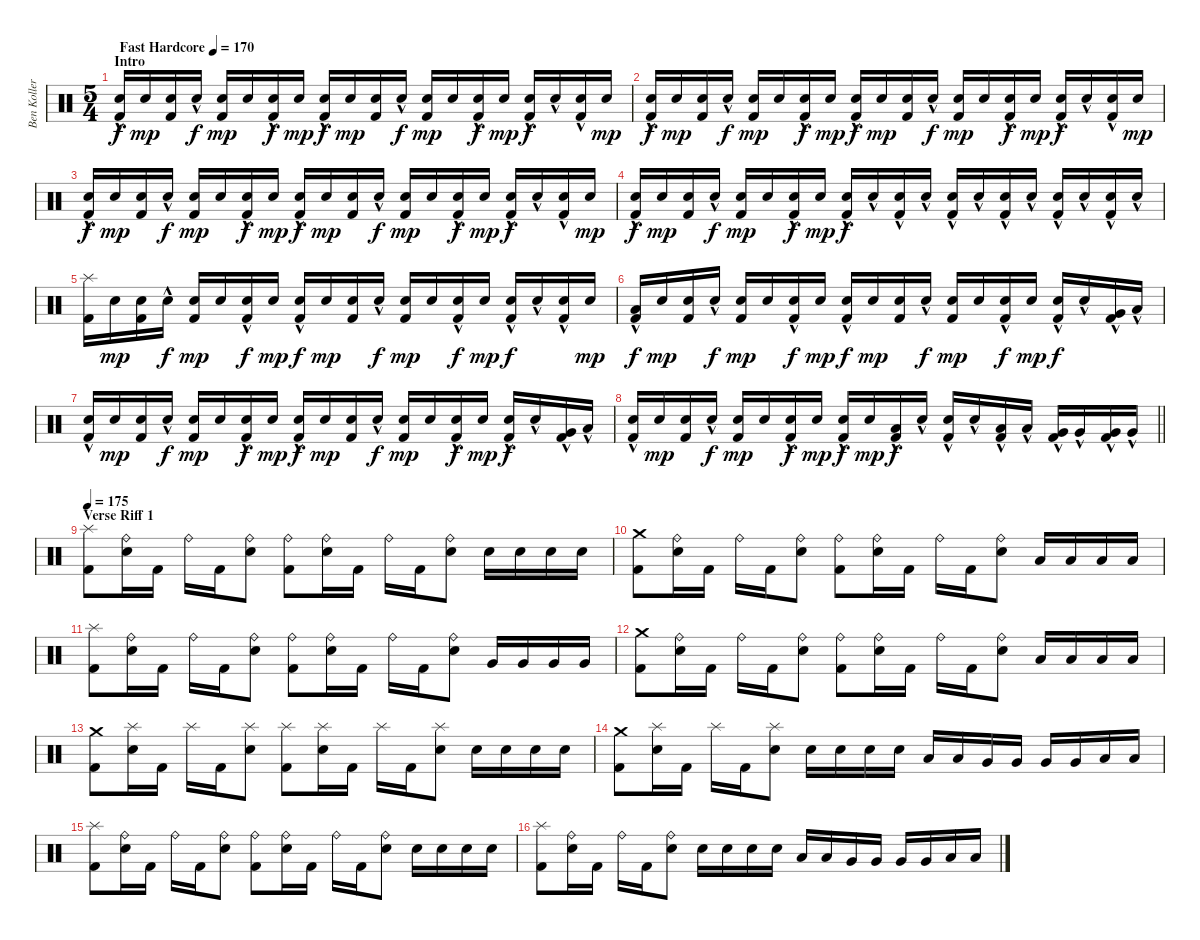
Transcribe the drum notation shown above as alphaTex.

\track ("Ben Koller" "Ben Koller") {instrument percussion}
\staff {score}
\articulation defaults
\ts (5 4)
\section ("" "Intro")
\tempo (170 "Fast Hardcore")
\clef neutral
\ks c
("Electric Snare (hit)"{hac} "Kick (hit) 2").16{dy f} "Electric Snare (hit)".16{dy mp} ("Electric Snare (hit)" "Kick (hit) 2").16 "Electric Snare (hit)"{hac}.16{dy f} ("Electric Snare (hit)" "Kick (hit) 2").16{dy mp} "Electric Snare (hit)".16 ("Electric Snare (hit)"{hac} "Kick (hit) 2").16{dy f} "Electric Snare (hit)".16{dy mp} ("Electric Snare (hit)"{hac} "Kick (hit) 2").16{dy f} "Electric Snare (hit)".16{dy mp} ("Electric Snare (hit)" "Kick (hit) 2").16 "Electric Snare (hit)"{hac}.16{dy f} ("Electric Snare (hit)" "Kick (hit) 2").16{dy mp} "Electric Snare (hit)".16 ("Electric Snare (hit)"{hac} "Kick (hit) 2").16{dy f} "Electric Snare (hit)".16{dy mp} ("Electric Snare (hit)"{hac} "Kick (hit) 2").16{dy f} "Electric Snare (hit)"{hac}.16 ("Electric Snare (hit)"{hac} "Kick (hit) 2").16 "Electric Snare (hit)".16{dy mp} |
("Electric Snare (hit)"{hac} "Kick (hit) 2").16{dy f} "Electric Snare (hit)".16{dy mp} ("Electric Snare (hit)" "Kick (hit) 2").16 "Electric Snare (hit)"{hac}.16{dy f} ("Electric Snare (hit)" "Kick (hit) 2").16{dy mp} "Electric Snare (hit)".16 ("Electric Snare (hit)"{hac} "Kick (hit) 2").16{dy f} "Electric Snare (hit)".16{dy mp} ("Electric Snare (hit)"{hac} "Kick (hit) 2").16{dy f} "Electric Snare (hit)".16{dy mp} ("Electric Snare (hit)" "Kick (hit) 2").16 "Electric Snare (hit)"{hac}.16{dy f} ("Electric Snare (hit)" "Kick (hit) 2").16{dy mp} "Electric Snare (hit)".16 ("Electric Snare (hit)"{hac} "Kick (hit) 2").16{dy f} "Electric Snare (hit)".16{dy mp} ("Electric Snare (hit)"{hac} "Kick (hit) 2").16{dy f} "Electric Snare (hit)"{hac}.16 ("Electric Snare (hit)"{hac} "Kick (hit) 2").16 "Electric Snare (hit)".16{dy mp} |
("Electric Snare (hit)"{hac} "Kick (hit) 2").16{dy f} "Electric Snare (hit)".16{dy mp} ("Electric Snare (hit)" "Kick (hit) 2").16 "Electric Snare (hit)"{hac}.16{dy f} ("Electric Snare (hit)" "Kick (hit) 2").16{dy mp} "Electric Snare (hit)".16 ("Electric Snare (hit)"{hac} "Kick (hit) 2").16{dy f} "Electric Snare (hit)".16{dy mp} ("Electric Snare (hit)"{hac} "Kick (hit) 2").16{dy f} "Electric Snare (hit)".16{dy mp} ("Electric Snare (hit)" "Kick (hit) 2").16 "Electric Snare (hit)"{hac}.16{dy f} ("Electric Snare (hit)" "Kick (hit) 2").16{dy mp} "Electric Snare (hit)".16 ("Electric Snare (hit)"{hac} "Kick (hit) 2").16{dy f} "Electric Snare (hit)".16{dy mp} ("Electric Snare (hit)"{hac} "Kick (hit) 2").16{dy f} "Electric Snare (hit)"{hac}.16 ("Electric Snare (hit)"{hac} "Kick (hit) 2").16 "Electric Snare (hit)".16{dy mp} |
("Electric Snare (hit)"{hac} "Kick (hit) 2").16{dy f} "Electric Snare (hit)".16{dy mp} ("Electric Snare (hit)" "Kick (hit) 2").16 "Electric Snare (hit)"{hac}.16{dy f} ("Electric Snare (hit)" "Kick (hit) 2").16{dy mp} "Electric Snare (hit)".16 ("Electric Snare (hit)"{hac} "Kick (hit) 2").16{dy f} "Electric Snare (hit)".16{dy mp} ("Electric Snare (hit)"{hac} "Kick (hit) 2").16{dy f} "Electric Snare (hit)"{hac}.16 ("Electric Snare (hit)"{hac} "Kick (hit) 2").16 "Electric Snare (hit)"{hac}.16 ("Electric Snare (hit)"{hac} "Kick (hit) 2").16 "Electric Snare (hit)"{hac}.16 ("Electric Snare (hit)"{hac} "Kick (hit) 2").16 "Electric Snare (hit)"{hac}.16 ("Electric Snare (hit)"{hac} "Kick (hit) 2").16 "Electric Snare (hit)"{hac}.16 ("Electric Snare (hit)"{hac} "Kick (hit) 2").16 "Electric Snare (hit)"{hac}.16 |
("Splash (hit)" "Kick (hit) 2").16 "Electric Snare (hit)".16{dy mp} ("Electric Snare (hit)" "Kick (hit) 2").16 "Electric Snare (hit)"{hac}.16{dy f} ("Electric Snare (hit)" "Kick (hit) 2").16{dy mp} "Electric Snare (hit)".16 ("Electric Snare (hit)"{hac} "Kick (hit) 2").16{dy f} "Electric Snare (hit)".16{dy mp} ("Electric Snare (hit)"{hac} "Kick (hit) 2").16{dy f} "Electric Snare (hit)".16{dy mp} ("Electric Snare (hit)" "Kick (hit) 2").16 "Electric Snare (hit)"{hac}.16{dy f} ("Electric Snare (hit)" "Kick (hit) 2").16{dy mp} "Electric Snare (hit)".16 ("Electric Snare (hit)"{hac} "Kick (hit) 2").16{dy f} "Electric Snare (hit)".16{dy mp} ("Electric Snare (hit)"{hac} "Kick (hit) 2").16{dy f} "Electric Snare (hit)"{hac}.16 ("Electric Snare (hit)"{hac} "Kick (hit) 2").16 "Electric Snare (hit)".16{dy mp} |
("Low Floor Tom (hit)"{hac} "Kick (hit) 2").16{dy f} "Electric Snare (hit)".16{dy mp} ("Electric Snare (hit)" "Kick (hit) 2").16 "Electric Snare (hit)"{hac}.16{dy f} ("Electric Snare (hit)" "Kick (hit) 2").16{dy mp} "Electric Snare (hit)".16 ("Electric Snare (hit)"{hac} "Kick (hit) 2").16{dy f} "Electric Snare (hit)".16{dy mp} ("Electric Snare (hit)"{hac} "Kick (hit) 2").16{dy f} "Electric Snare (hit)".16{dy mp} ("Electric Snare (hit)" "Kick (hit) 2").16 "Electric Snare (hit)"{hac}.16{dy f} ("Electric Snare (hit)" "Kick (hit) 2").16{dy mp} "Electric Snare (hit)".16 ("Electric Snare (hit)"{hac} "Kick (hit) 2").16{dy f} "Electric Snare (hit)".16{dy mp} ("Electric Snare (hit)"{hac} "Kick (hit) 2").16{dy f} "Electric Snare (hit)"{hac}.16 ("Very Low Tom (hit)"{hac} "Kick (hit) 2").16 "Low Floor Tom (hit)"{hac}.16 |
("Electric Snare (hit)"{hac} "Kick (hit) 2").16 "Electric Snare (hit)".16{dy mp} ("Electric Snare (hit)" "Kick (hit) 2").16 "Electric Snare (hit)"{hac}.16{dy f} ("Electric Snare (hit)" "Kick (hit) 2").16{dy mp} "Electric Snare (hit)".16 ("Electric Snare (hit)"{hac} "Kick (hit) 2").16{dy f} "Electric Snare (hit)".16{dy mp} ("Electric Snare (hit)"{hac} "Kick (hit) 2").16{dy f} "Electric Snare (hit)".16{dy mp} ("Electric Snare (hit)" "Kick (hit) 2").16 "Electric Snare (hit)"{hac}.16{dy f} ("Electric Snare (hit)" "Kick (hit) 2").16{dy mp} "Electric Snare (hit)".16 ("Electric Snare (hit)"{hac} "Kick (hit) 2").16{dy f} "Electric Snare (hit)".16{dy mp} ("Electric Snare (hit)"{hac} "Kick (hit) 2").16{dy f} "Electric Snare (hit)"{hac}.16 ("Very Low Tom (hit)"{hac} "Kick (hit) 2").16 "Low Floor Tom (hit)"{hac}.16 |
\barLineRight lightlight
("Electric Snare (hit)"{hac} "Kick (hit) 2").16 "Electric Snare (hit)".16{dy mp} ("Electric Snare (hit)" "Kick (hit) 2").16 "Electric Snare (hit)"{hac}.16{dy f} ("Electric Snare (hit)" "Kick (hit) 2").16{dy mp} "Electric Snare (hit)".16 ("Electric Snare (hit)"{hac} "Kick (hit) 2").16{dy f} "Electric Snare (hit)".16{dy mp} ("Electric Snare (hit)"{hac} "Kick (hit) 2").16{dy f} "Electric Snare (hit)".16{dy mp} ("Low Tom (hit)"{hac} "Kick (hit) 2").16{dy f} "Electric Snare (hit)"{hac}.16 ("Electric Snare (hit)"{hac} "Kick (hit) 2").16 "Electric Snare (hit)"{hac}.16 ("Low Tom (hit)"{hac} "Kick (hit) 2").16 "Low Tom (hit)"{hac}.16 ("Very Low Tom (hit)"{hac} "Kick (hit) 2").16 "Very Low Tom (hit)"{hac}.16 ("Very Low Tom (hit)"{hac} "Kick (hit) 2").16 "Very Low Tom (hit)"{hac}.16 |
\section ("" "Verse Riff 1")
\tempo 175
("Splash (hit)" "Kick (hit) 2").8 ("Ride (bell)" "Electric Snare (hit)").16 "Kick (hit) 2".16 "Ride (bell)".16 "Kick (hit) 2".16 ("Ride (bell)" "Electric Snare (hit)").8 ("Ride (bell)" "Kick (hit) 2").8 ("Ride (bell)" "Electric Snare (hit)").16 "Kick (hit) 2".16 "Ride (bell)".16 "Kick (hit) 2".16 ("Ride (bell)" "Electric Snare (hit)").8 "Electric Snare (hit)".16 "Electric Snare (hit)".16 "Electric Snare (hit)".16 "Electric Snare (hit)".16 |
("Crash medium (hit)" "Kick (hit) 2").8 ("Ride (bell)" "Electric Snare (hit)").16 "Kick (hit) 2".16 "Ride (bell)".16 "Kick (hit) 2".16 ("Ride (bell)" "Electric Snare (hit)").8 ("Ride (bell)" "Kick (hit) 2").8 ("Ride (bell)" "Electric Snare (hit)").16 "Kick (hit) 2".16 "Ride (bell)".16 "Kick (hit) 2".16 ("Ride (bell)" "Electric Snare (hit)").8 "Low Tom (hit)".16 "Low Tom (hit)".16 "Low Tom (hit)".16 "Low Tom (hit)".16 |
("Splash (hit)" "Kick (hit) 2").8 ("Ride (bell)" "Electric Snare (hit)").16 "Kick (hit) 2".16 "Ride (bell)".16 "Kick (hit) 2".16 ("Ride (bell)" "Electric Snare (hit)").8 ("Ride (bell)" "Kick (hit) 2").8 ("Ride (bell)" "Electric Snare (hit)").16 "Kick (hit) 2".16 "Ride (bell)".16 "Kick (hit) 2".16 ("Ride (bell)" "Electric Snare (hit)").8 "Very Low Tom (hit)".16 "Very Low Tom (hit)".16 "Very Low Tom (hit)".16 "Very Low Tom (hit)".16 |
("Crash medium (hit)" "Kick (hit) 2").8 ("Ride (bell)" "Electric Snare (hit)").16 "Kick (hit) 2".16 "Ride (bell)".16 "Kick (hit) 2".16 ("Ride (bell)" "Electric Snare (hit)").8 ("Ride (bell)" "Kick (hit) 2").8 ("Ride (bell)" "Electric Snare (hit)").16 "Kick (hit) 2".16 "Ride (bell)".16 "Kick (hit) 2".16 ("Ride (bell)" "Electric Snare (hit)").8 "Low Floor Tom (hit)".16 "Low Floor Tom (hit)".16 "Low Floor Tom (hit)".16 "Low Floor Tom (hit)".16 |
("Crash medium (hit)" "Kick (hit) 2").8 ("Splash (hit)" "Electric Snare (hit)").16 "Kick (hit) 2".16 "Splash (hit)".16 "Kick (hit) 2".16 ("Splash (hit)" "Electric Snare (hit)").8 ("Splash (hit)" "Kick (hit) 2").8 ("Splash (hit)" "Electric Snare (hit)").16 "Kick (hit) 2".16 "Splash (hit)".16 "Kick (hit) 2".16 ("Splash (hit)" "Electric Snare (hit)").8 "Electric Snare (hit)".16 "Electric Snare (hit)".16 "Electric Snare (hit)".16 "Electric Snare (hit)".16 |
("Crash medium (hit)" "Kick (hit) 2").8 ("Splash (hit)" "Electric Snare (hit)").16 "Kick (hit) 2".16 "Splash (hit)".16 "Kick (hit) 2".16 ("Splash (hit)" "Electric Snare (hit)").8 "Electric Snare (hit)".16 "Electric Snare (hit)".16 "Electric Snare (hit)".16 "Electric Snare (hit)".16 "Low Tom (hit)".16 "Low Tom (hit)".16 "Very Low Tom (hit)".16 "Very Low Tom (hit)".16 "Very Low Tom (hit)".16 "Very Low Tom (hit)".16 "Low Floor Tom (hit)".16 "Low Floor Tom (hit)".16 |
("Splash (hit)" "Kick (hit) 2").8 ("Ride (bell)" "Electric Snare (hit)").16 "Kick (hit) 2".16 "Ride (bell)".16 "Kick (hit) 2".16 ("Ride (bell)" "Electric Snare (hit)").8 ("Ride (bell)" "Kick (hit) 2").8 ("Ride (bell)" "Electric Snare (hit)").16 "Kick (hit) 2".16 "Ride (bell)".16 "Kick (hit) 2".16 ("Ride (bell)" "Electric Snare (hit)").8 "Electric Snare (hit)".16 "Electric Snare (hit)".16 "Electric Snare (hit)".16 "Electric Snare (hit)".16 |
("Splash (hit)" "Kick (hit) 2").8 ("Ride (bell)" "Electric Snare (hit)").16 "Kick (hit) 2".16 "Ride (bell)".16 "Kick (hit) 2".16 ("Ride (bell)" "Electric Snare (hit)").8 "Electric Snare (hit)".16 "Electric Snare (hit)".16 "Electric Snare (hit)".16 "Electric Snare (hit)".16 "Low Tom (hit)".16 "Low Tom (hit)".16 "Very Low Tom (hit)".16 "Very Low Tom (hit)".16 "Very Low Tom (hit)".16 "Very Low Tom (hit)".16 "Low Floor Tom (hit)".16 "Low Floor Tom (hit)".16
